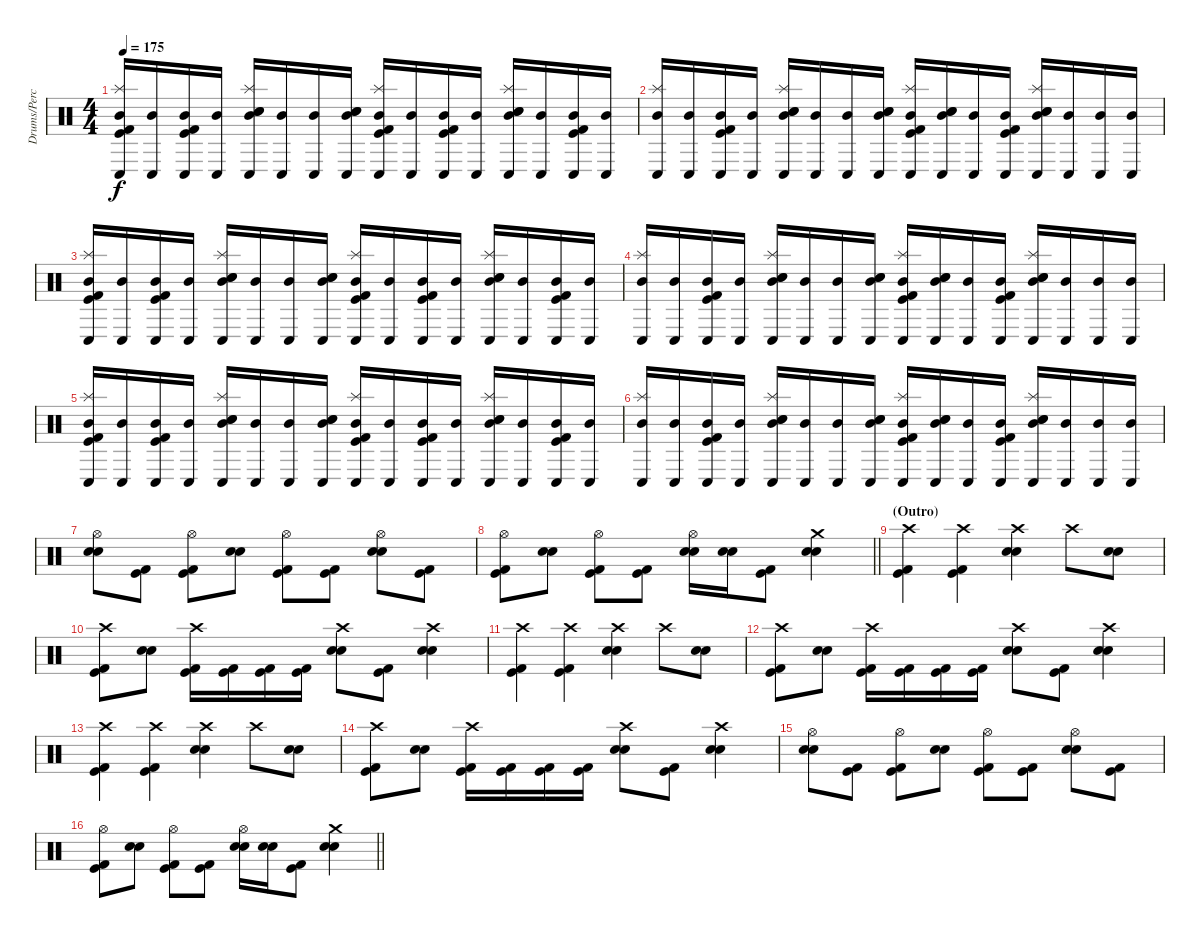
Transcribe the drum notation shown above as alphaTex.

\track ("Drums/Percussion" "Drums/Perc") {instrument percussion}
\staff {score}
\articulation defaults
\ts (4 4)
\tempo 175
\clef neutral
\ks c
("Splash (hit)" "Conga low (hit)" "Mid Tom (hit)" "Kick (hit)" "Kick (hit) 2").16{dy f} ("Conga low (hit)" "Mid Tom (hit)").16 ("Conga low (hit)" "Mid Tom (hit)" "Kick (hit)" "Kick (hit) 2").16 ("Conga low (hit)" "Mid Tom (hit)").16 ("Splash (hit)" "Conga low (hit)" "Electric Snare (hit)" "Snare (hit) 2" "Mid Tom (hit)").16 ("Conga low (hit)" "Mid Tom (hit)").16 ("Conga low (hit)" "Mid Tom (hit)").16 ("Conga low (hit)" "Electric Snare (hit)" "Snare (hit) 2" "Mid Tom (hit)").16 ("Splash (hit)" "Conga low (hit)" "Mid Tom (hit)" "Kick (hit)" "Kick (hit) 2").16 ("Conga low (hit)" "Mid Tom (hit)").16 ("Conga low (hit)" "Mid Tom (hit)" "Kick (hit)" "Kick (hit) 2").16 ("Conga low (hit)" "Mid Tom (hit)").16 ("Splash (hit)" "Conga low (hit)" "Electric Snare (hit)" "Snare (hit) 2" "Mid Tom (hit)").16 ("Conga low (hit)" "Mid Tom (hit)").16 ("Conga low (hit)" "Mid Tom (hit)" "Kick (hit)" "Kick (hit) 2").16 ("Conga low (hit)" "Mid Tom (hit)").16 |
("Splash (hit)" "Conga low (hit)" "Mid Tom (hit)").16 ("Conga low (hit)" "Mid Tom (hit)").16 ("Conga low (hit)" "Mid Tom (hit)" "Kick (hit)" "Kick (hit) 2").16 ("Conga low (hit)" "Mid Tom (hit)").16 ("Splash (hit)" "Conga low (hit)" "Electric Snare (hit)" "Snare (hit) 2" "Mid Tom (hit)").16 ("Conga low (hit)" "Mid Tom (hit)").16 ("Conga low (hit)" "Mid Tom (hit)").16 ("Conga low (hit)" "Electric Snare (hit)" "Snare (hit) 2" "Mid Tom (hit)").16 ("Splash (hit)" "Conga low (hit)" "Mid Tom (hit)" "Kick (hit)" "Kick (hit) 2").16 ("Conga low (hit)" "Electric Snare (hit)" "Snare (hit) 2" "Mid Tom (hit)").16 ("Conga low (hit)" "Mid Tom (hit)").16 ("Conga low (hit)" "Mid Tom (hit)" "Kick (hit)" "Kick (hit) 2").16 ("Splash (hit)" "Conga low (hit)" "Electric Snare (hit)" "Snare (hit) 2" "Mid Tom (hit)").16 ("Conga low (hit)" "Mid Tom (hit)").16 ("Conga low (hit)" "Mid Tom (hit)").16 ("Conga low (hit)" "Mid Tom (hit)").16 |
("Splash (hit)" "Conga low (hit)" "Mid Tom (hit)" "Kick (hit)" "Kick (hit) 2").16 ("Conga low (hit)" "Mid Tom (hit)").16 ("Conga low (hit)" "Mid Tom (hit)" "Kick (hit)" "Kick (hit) 2").16 ("Conga low (hit)" "Mid Tom (hit)").16 ("Splash (hit)" "Conga low (hit)" "Electric Snare (hit)" "Snare (hit) 2" "Mid Tom (hit)").16 ("Conga low (hit)" "Mid Tom (hit)").16 ("Conga low (hit)" "Mid Tom (hit)").16 ("Conga low (hit)" "Electric Snare (hit)" "Snare (hit) 2" "Mid Tom (hit)").16 ("Splash (hit)" "Conga low (hit)" "Mid Tom (hit)" "Kick (hit)" "Kick (hit) 2").16 ("Conga low (hit)" "Mid Tom (hit)").16 ("Conga low (hit)" "Mid Tom (hit)" "Kick (hit)" "Kick (hit) 2").16 ("Conga low (hit)" "Mid Tom (hit)").16 ("Splash (hit)" "Conga low (hit)" "Electric Snare (hit)" "Snare (hit) 2" "Mid Tom (hit)").16 ("Conga low (hit)" "Mid Tom (hit)").16 ("Conga low (hit)" "Mid Tom (hit)" "Kick (hit)" "Kick (hit) 2").16 ("Conga low (hit)" "Mid Tom (hit)").16 |
("Splash (hit)" "Conga low (hit)" "Mid Tom (hit)").16 ("Conga low (hit)" "Mid Tom (hit)").16 ("Conga low (hit)" "Mid Tom (hit)" "Kick (hit)" "Kick (hit) 2").16 ("Conga low (hit)" "Mid Tom (hit)").16 ("Splash (hit)" "Conga low (hit)" "Electric Snare (hit)" "Snare (hit) 2" "Mid Tom (hit)").16 ("Conga low (hit)" "Mid Tom (hit)").16 ("Conga low (hit)" "Mid Tom (hit)").16 ("Conga low (hit)" "Electric Snare (hit)" "Snare (hit) 2" "Mid Tom (hit)").16 ("Splash (hit)" "Conga low (hit)" "Mid Tom (hit)" "Kick (hit)" "Kick (hit) 2").16 ("Conga low (hit)" "Electric Snare (hit)" "Snare (hit) 2" "Mid Tom (hit)").16 ("Conga low (hit)" "Mid Tom (hit)").16 ("Conga low (hit)" "Mid Tom (hit)" "Kick (hit)" "Kick (hit) 2").16 ("Splash (hit)" "Conga low (hit)" "Electric Snare (hit)" "Snare (hit) 2" "Mid Tom (hit)").16 ("Conga low (hit)" "Mid Tom (hit)").16 ("Conga low (hit)" "Mid Tom (hit)").16 ("Conga low (hit)" "Mid Tom (hit)").16 |
("Splash (hit)" "Conga low (hit)" "Mid Tom (hit)" "Kick (hit)" "Kick (hit) 2").16 ("Conga low (hit)" "Mid Tom (hit)").16 ("Conga low (hit)" "Mid Tom (hit)" "Kick (hit)" "Kick (hit) 2").16 ("Conga low (hit)" "Mid Tom (hit)").16 ("Splash (hit)" "Conga low (hit)" "Electric Snare (hit)" "Snare (hit) 2" "Mid Tom (hit)").16 ("Conga low (hit)" "Mid Tom (hit)").16 ("Conga low (hit)" "Mid Tom (hit)").16 ("Conga low (hit)" "Electric Snare (hit)" "Snare (hit) 2" "Mid Tom (hit)").16 ("Splash (hit)" "Conga low (hit)" "Mid Tom (hit)" "Kick (hit)" "Kick (hit) 2").16 ("Conga low (hit)" "Mid Tom (hit)").16 ("Conga low (hit)" "Mid Tom (hit)" "Kick (hit)" "Kick (hit) 2").16 ("Conga low (hit)" "Mid Tom (hit)").16 ("Splash (hit)" "Conga low (hit)" "Electric Snare (hit)" "Snare (hit) 2" "Mid Tom (hit)").16 ("Conga low (hit)" "Mid Tom (hit)").16 ("Conga low (hit)" "Mid Tom (hit)" "Kick (hit)" "Kick (hit) 2").16 ("Conga low (hit)" "Mid Tom (hit)").16 |
("Splash (hit)" "Conga low (hit)" "Mid Tom (hit)").16 ("Conga low (hit)" "Mid Tom (hit)").16 ("Conga low (hit)" "Mid Tom (hit)" "Kick (hit)" "Kick (hit) 2").16 ("Conga low (hit)" "Mid Tom (hit)").16 ("Splash (hit)" "Conga low (hit)" "Electric Snare (hit)" "Snare (hit) 2" "Mid Tom (hit)").16 ("Conga low (hit)" "Mid Tom (hit)").16 ("Conga low (hit)" "Mid Tom (hit)").16 ("Conga low (hit)" "Electric Snare (hit)" "Snare (hit) 2" "Mid Tom (hit)").16 ("Splash (hit)" "Conga low (hit)" "Mid Tom (hit)" "Kick (hit)" "Kick (hit) 2").16 ("Conga low (hit)" "Electric Snare (hit)" "Snare (hit) 2" "Mid Tom (hit)").16 ("Conga low (hit)" "Mid Tom (hit)").16 ("Conga low (hit)" "Mid Tom (hit)" "Kick (hit)" "Kick (hit) 2").16 ("Splash (hit)" "Conga low (hit)" "Electric Snare (hit)" "Snare (hit) 2" "Mid Tom (hit)").16 ("Conga low (hit)" "Mid Tom (hit)").16 ("Conga low (hit)" "Mid Tom (hit)").16 ("Conga low (hit)" "Mid Tom (hit)").16 |
("Hi-Hat (open)" "Electric Snare (hit)" "Snare (hit) 2").8 ("Kick (hit)" "Kick (hit) 2").8 ("Hi-Hat (open)" "Kick (hit)" "Kick (hit) 2").8 ("Electric Snare (hit)" "Snare (hit) 2").8 ("Hi-Hat (open)" "Kick (hit)" "Kick (hit) 2").8 ("Kick (hit)" "Kick (hit) 2").8 ("Hi-Hat (open)" "Electric Snare (hit)" "Snare (hit) 2").8 ("Kick (hit)" "Kick (hit) 2").8 |
\barLineRight lightlight
("Hi-Hat (open)" "Kick (hit)" "Kick (hit) 2").8 ("Electric Snare (hit)" "Snare (hit) 2").8 ("Hi-Hat (open)" "Kick (hit)" "Kick (hit) 2").8 ("Kick (hit)" "Kick (hit) 2").8 ("Hi-Hat (open)" "Electric Snare (hit)" "Snare (hit) 2").16 ("Electric Snare (hit)" "Snare (hit) 2").16 ("Kick (hit)" "Kick (hit) 2").8 ("Crash medium (hit)" "Electric Snare (hit)" "Snare (hit) 2").4 |
\section ("" "(Outro)")
("Crash high (hit)" "Kick (hit)" "Kick (hit) 2").4 ("Crash high (hit)" "Kick (hit)" "Kick (hit) 2").4 ("Crash high (hit)" "Electric Snare (hit)" "Snare (hit) 2").4 "Crash high (hit)".8 ("Electric Snare (hit)" "Snare (hit) 2").8 |
("Crash high (hit)" "Kick (hit)" "Kick (hit) 2").8 ("Electric Snare (hit)" "Snare (hit) 2").8 ("Crash high (hit)" "Kick (hit)" "Kick (hit) 2").16 ("Kick (hit)" "Kick (hit) 2").16 ("Kick (hit)" "Kick (hit) 2").16 ("Kick (hit)" "Kick (hit) 2").16 ("Crash high (hit)" "Electric Snare (hit)" "Snare (hit) 2").8 ("Kick (hit)" "Kick (hit) 2").8 ("Crash high (hit)" "Electric Snare (hit)" "Snare (hit) 2").4 |
("Crash high (hit)" "Kick (hit)" "Kick (hit) 2").4 ("Crash high (hit)" "Kick (hit)" "Kick (hit) 2").4 ("Crash high (hit)" "Electric Snare (hit)" "Snare (hit) 2").4 "Crash high (hit)".8 ("Electric Snare (hit)" "Snare (hit) 2").8 |
("Crash high (hit)" "Kick (hit)" "Kick (hit) 2").8 ("Electric Snare (hit)" "Snare (hit) 2").8 ("Crash high (hit)" "Kick (hit)" "Kick (hit) 2").16 ("Kick (hit)" "Kick (hit) 2").16 ("Kick (hit)" "Kick (hit) 2").16 ("Kick (hit)" "Kick (hit) 2").16 ("Crash high (hit)" "Electric Snare (hit)" "Snare (hit) 2").8 ("Kick (hit)" "Kick (hit) 2").8 ("Crash high (hit)" "Electric Snare (hit)" "Snare (hit) 2").4 |
("Crash high (hit)" "Kick (hit)" "Kick (hit) 2").4 ("Crash high (hit)" "Kick (hit)" "Kick (hit) 2").4 ("Crash high (hit)" "Electric Snare (hit)" "Snare (hit) 2").4 "Crash high (hit)".8 ("Electric Snare (hit)" "Snare (hit) 2").8 |
("Crash high (hit)" "Kick (hit)" "Kick (hit) 2").8 ("Electric Snare (hit)" "Snare (hit) 2").8 ("Crash high (hit)" "Kick (hit)" "Kick (hit) 2").16 ("Kick (hit)" "Kick (hit) 2").16 ("Kick (hit)" "Kick (hit) 2").16 ("Kick (hit)" "Kick (hit) 2").16 ("Crash high (hit)" "Electric Snare (hit)" "Snare (hit) 2").8 ("Kick (hit)" "Kick (hit) 2").8 ("Crash high (hit)" "Electric Snare (hit)" "Snare (hit) 2").4 |
("Hi-Hat (open)" "Electric Snare (hit)" "Snare (hit) 2").8 ("Kick (hit)" "Kick (hit) 2").8 ("Hi-Hat (open)" "Kick (hit)" "Kick (hit) 2").8 ("Electric Snare (hit)" "Snare (hit) 2").8 ("Hi-Hat (open)" "Kick (hit)" "Kick (hit) 2").8 ("Kick (hit)" "Kick (hit) 2").8 ("Hi-Hat (open)" "Electric Snare (hit)" "Snare (hit) 2").8 ("Kick (hit)" "Kick (hit) 2").8 |
\barLineRight lightlight
("Hi-Hat (open)" "Kick (hit)" "Kick (hit) 2").8 ("Electric Snare (hit)" "Snare (hit) 2").8 ("Hi-Hat (open)" "Kick (hit)" "Kick (hit) 2").8 ("Kick (hit)" "Kick (hit) 2").8 ("Hi-Hat (open)" "Electric Snare (hit)" "Snare (hit) 2").16 ("Electric Snare (hit)" "Snare (hit) 2").16 ("Kick (hit)" "Kick (hit) 2").8 ("Crash medium (hit)" "Electric Snare (hit)" "Snare (hit) 2").4
